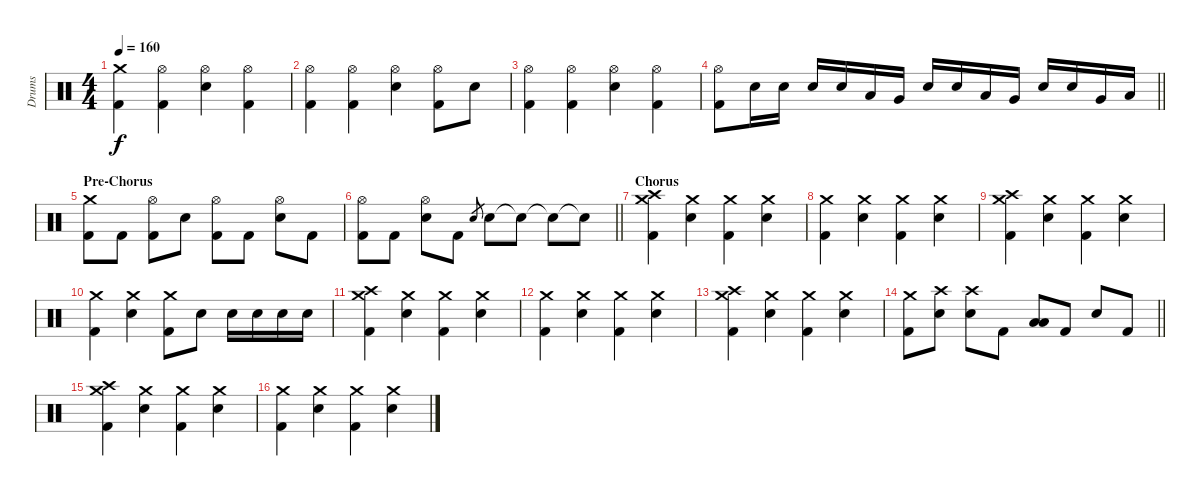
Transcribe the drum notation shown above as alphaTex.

\track ("Drums" "Drums") {instrument percussion}
\staff {score}
\articulation defaults
\ts (4 4)
\tempo 160
\clef neutral
\ks c
("Kick (hit) 2" "Crash medium (hit)").4{dy f} ("Kick (hit) 2" "Hi-Hat (open)").4 ("Electric Snare (hit)" "Hi-Hat (open)").4 ("Kick (hit) 2" "Hi-Hat (open)").4 |
("Kick (hit) 2" "Hi-Hat (open)").4 ("Kick (hit) 2" "Hi-Hat (open)").4 ("Electric Snare (hit)" "Hi-Hat (open)").4 ("Kick (hit) 2" "Hi-Hat (open)").8 "Electric Snare (hit)".8 |
("Kick (hit) 2" "Hi-Hat (open)").4 ("Kick (hit) 2" "Hi-Hat (open)").4 ("Electric Snare (hit)" "Hi-Hat (open)").4 ("Kick (hit) 2" "Hi-Hat (open)").4 |
\barLineRight lightlight
("Kick (hit) 2" "Hi-Hat (open)").8 "Electric Snare (hit)".16 "Electric Snare (hit)".16 "Electric Snare (hit)".16 "Electric Snare (hit)".16 "Low Tom (hit)".16 "Very Low Tom (hit)".16 "Electric Snare (hit)".16 "Electric Snare (hit)".16 "Low Tom (hit)".16 "Very Low Tom (hit)".16 "Electric Snare (hit)".16 "Electric Snare (hit)".16 "Very Low Tom (hit)".16 "Low Floor Tom (hit)".16 |
\section ("" "Pre-Chorus")
("Kick (hit) 2" "Crash medium (hit)").8 "Kick (hit) 2".8 ("Kick (hit) 2" "Hi-Hat (open)").8 "Electric Snare (hit)".8 ("Kick (hit) 2" "Hi-Hat (open)").8 "Kick (hit) 2".8 ("Electric Snare (hit)" "Hi-Hat (open)").8 "Kick (hit) 2".8 |
\barLineRight lightlight
("Kick (hit) 2" "Hi-Hat (open)").8 "Kick (hit) 2".8 ("Electric Snare (hit)" "Hi-Hat (open)").8 "Kick (hit) 2".8 "Electric Snare (hit)".8{gr} "Electric Snare (hit)".8 "Snare (hit)"{t}.8 "Snare (hit)"{t}.8 "Snare (hit)"{t}.8 |
\section ("" "Chorus")
("Kick (hit) 2" "Crash medium (hit)" "Crash high (hit)").4 ("Electric Snare (hit)" "Crash medium (hit)").4 ("Kick (hit) 2" "Crash medium (hit)").4 ("Electric Snare (hit)" "Crash medium (hit)").4 |
("Kick (hit) 2" "Crash medium (hit)").4 ("Electric Snare (hit)" "Crash medium (hit)").4 ("Kick (hit) 2" "Crash medium (hit)").4 ("Electric Snare (hit)" "Crash medium (hit)").4 |
("Kick (hit) 2" "Crash medium (hit)" "Crash high (hit)").4 ("Electric Snare (hit)" "Crash medium (hit)").4 ("Kick (hit) 2" "Crash medium (hit)").4 ("Electric Snare (hit)" "Crash medium (hit)").4 |
("Kick (hit) 2" "Crash medium (hit)").4 ("Electric Snare (hit)" "Crash medium (hit)").4 ("Kick (hit) 2" "Crash medium (hit)").8 "Electric Snare (hit)".8 "Electric Snare (hit)".16 "Electric Snare (hit)".16 "Electric Snare (hit)".16 "Electric Snare (hit)".16 |
("Kick (hit) 2" "Crash medium (hit)" "Crash high (hit)").4 ("Electric Snare (hit)" "Crash medium (hit)").4 ("Kick (hit) 2" "Crash medium (hit)").4 ("Electric Snare (hit)" "Crash medium (hit)").4 |
("Kick (hit) 2" "Crash medium (hit)").4 ("Electric Snare (hit)" "Crash medium (hit)").4 ("Kick (hit) 2" "Crash medium (hit)").4 ("Electric Snare (hit)" "Crash medium (hit)").4 |
("Kick (hit) 2" "Crash medium (hit)" "Crash high (hit)").4 ("Electric Snare (hit)" "Crash medium (hit)").4 ("Kick (hit) 2" "Crash medium (hit)").4 ("Electric Snare (hit)" "Crash medium (hit)").4 |
\barLineRight lightlight
("Kick (hit) 2" "Crash medium (hit)").8 ("Electric Snare (hit)" "Crash high (hit)").8 ("Electric Snare (hit)" "Crash high (hit)").8 "Kick (hit) 2".8 ("Low Tom (hit)" "Low Floor Tom (hit)").8 "Kick (hit) 2".8 "Electric Snare (hit)".8 "Kick (hit) 2".8 |
("Kick (hit) 2" "Crash medium (hit)" "Crash high (hit)").4 ("Electric Snare (hit)" "Crash medium (hit)").4 ("Kick (hit) 2" "Crash medium (hit)").4 ("Electric Snare (hit)" "Crash medium (hit)").4 |
("Kick (hit) 2" "Crash medium (hit)").4 ("Electric Snare (hit)" "Crash medium (hit)").4 ("Kick (hit) 2" "Crash medium (hit)").4 ("Electric Snare (hit)" "Crash medium (hit)").4
